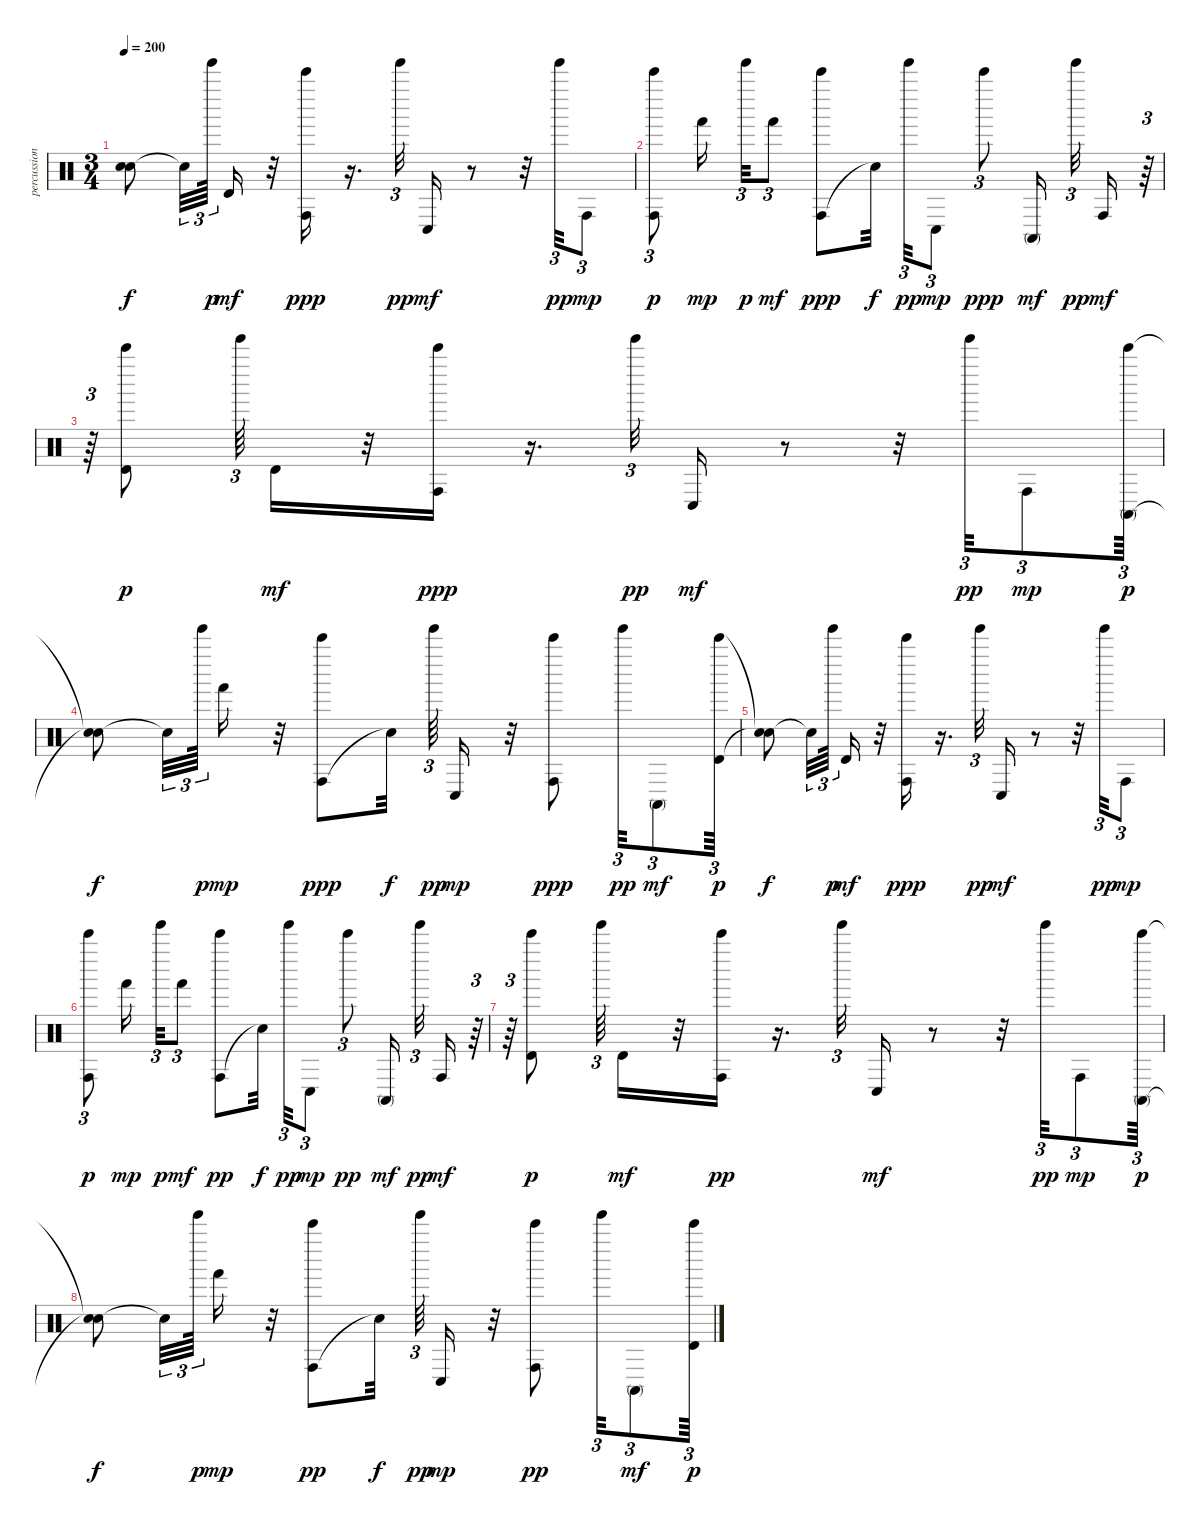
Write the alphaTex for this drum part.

\track ("percussion" "percussion") {instrument percussion}
\staff {score}
\articulation defaults
\ts (3 4)
\tempo 200
\clef neutral
\ks c
("Snare (hit)"{t} "Snare (hit)"{t}).8{dy f} "Snare (hit)"{t}.32{tu (3 2)} "Tinkle Bell (hit)".64{tu (3 2) dy p} "Timbale high (hit)".16{dy mf} r.32 ("Conga high (hit)" "Bell Tree (hit)").16{dy ppp} r.16{d} "Tinkle Bell (hit)".32{tu (3 2) dy pp} "Conga low (hit)".16{dy mf} r.8 r.32 "Tinkle Bell (hit)".32{tu (3 2) dy pp} "Conga high (hit)".8{tu (3 2) dy mp} |
("Conga high (hit)" "Bell Tree (hit)").8{tu (3 2) dy p} "Hand (hit)".16{dy mp} "Tinkle Bell (hit)".32{tu (3 2) dy p} "Hand (hit)".8{tu (3 2) dy mf} ("Conga high (hit)" "Bell Tree (hit)").8{dy ppp} "Snare (hit)"{t}.32{dy f} "Tinkle Bell (hit)".32{tu (3 2) dy pp} "Conga low (hit)".8{tu (3 2) dy mp} "Bell Tree (hit)".8{tu (3 2) dy ppp} "Conga high (mute)".16{dy mf} "Tinkle Bell (hit)".32{tu (3 2) dy pp} "Conga high (hit)".16{dy mf} r.64{tu (3 2)} |
r.64{tu (3 2)} ("Timbale high (hit)" "Bell Tree (hit)").8{dy p} "Tinkle Bell (hit)".64{tu (3 2)} "Timbale high (hit)".16{dy mf} r.32 ("Conga high (hit)" "Bell Tree (hit)").16{dy ppp} r.16{d} "Tinkle Bell (hit)".32{tu (3 2) dy pp} "Conga low (hit)".16{dy mf} r.8 r.32 "Tinkle Bell (hit)".32{tu (3 2) dy pp} "Conga high (hit)".8{tu (3 2) dy mp} ("Conga high (mute)" "Bell Tree (hit)").64{tu (3 2) dy p} |
("Snare (hit)"{t} "Snare (hit)"{t}).8{dy f} "Snare (hit)"{t}.32{tu (3 2)} "Tinkle Bell (hit)".64{tu (3 2) dy p} "Hand (hit)".16{dy mp} r.32 ("Conga high (hit)" "Bell Tree (hit)").8{dy ppp} "Snare (hit)"{t}.32{dy f} "Tinkle Bell (hit)".64{tu (3 2) dy pp} "Conga low (hit)".16{dy mp} r.32 ("Conga high (hit)" "Bell Tree (hit)").8{dy ppp} "Tinkle Bell (hit)".32{tu (3 2) dy pp} "Conga high (mute)".8{tu (3 2) dy mf} ("Timbale high (hit)" "Bell Tree (hit)").64{tu (3 2) dy p} |
("Snare (hit)"{t} "Snare (hit)"{t}).8{dy f} "Snare (hit)"{t}.32{tu (3 2)} "Tinkle Bell (hit)".64{tu (3 2) dy p} "Timbale high (hit)".16{dy mf} r.32 ("Conga high (hit)" "Bell Tree (hit)").16{dy ppp} r.16{d} "Tinkle Bell (hit)".32{tu (3 2) dy pp} "Conga low (hit)".16{dy mf} r.8 r.32 "Tinkle Bell (hit)".32{tu (3 2) dy pp} "Conga high (hit)".8{tu (3 2) dy mp} |
("Conga high (hit)" "Bell Tree (hit)").8{tu (3 2) dy p} "Hand (hit)".16{dy mp} "Tinkle Bell (hit)".32{tu (3 2) dy p} "Hand (hit)".8{tu (3 2) dy mf} ("Conga high (hit)" "Bell Tree (hit)").8{dy pp} "Snare (hit)"{t}.32{dy f} "Tinkle Bell (hit)".32{tu (3 2) dy pp} "Conga low (hit)".8{tu (3 2) dy mp} "Bell Tree (hit)".8{tu (3 2) dy pp} "Conga high (mute)".16{dy mf} "Tinkle Bell (hit)".32{tu (3 2) dy pp} "Conga high (hit)".16{dy mf} r.64{tu (3 2)} |
r.64{tu (3 2)} ("Timbale high (hit)" "Bell Tree (hit)").8{dy p} "Tinkle Bell (hit)".64{tu (3 2)} "Timbale high (hit)".16{dy mf} r.32 ("Conga high (hit)" "Bell Tree (hit)").16{dy pp} r.16{d} "Tinkle Bell (hit)".32{tu (3 2)} "Conga low (hit)".16{dy mf} r.8 r.32 "Tinkle Bell (hit)".32{tu (3 2) dy pp} "Conga high (hit)".8{tu (3 2) dy mp} ("Conga high (mute)" "Bell Tree (hit)").64{tu (3 2) dy p} |
("Snare (hit)"{t} "Snare (hit)"{t}).8{dy f} "Snare (hit)"{t}.32{tu (3 2)} "Tinkle Bell (hit)".64{tu (3 2) dy p} "Hand (hit)".16{dy mp} r.32 ("Conga high (hit)" "Bell Tree (hit)").8{dy pp} "Snare (hit)"{t}.32{dy f} "Tinkle Bell (hit)".64{tu (3 2) dy pp} "Conga low (hit)".16{dy mp} r.32 ("Conga high (hit)" "Bell Tree (hit)").8{dy pp} "Tinkle Bell (hit)".32{tu (3 2)} "Conga high (mute)".8{tu (3 2) dy mf} ("Timbale high (hit)" "Bell Tree (hit)").64{tu (3 2) dy p}
